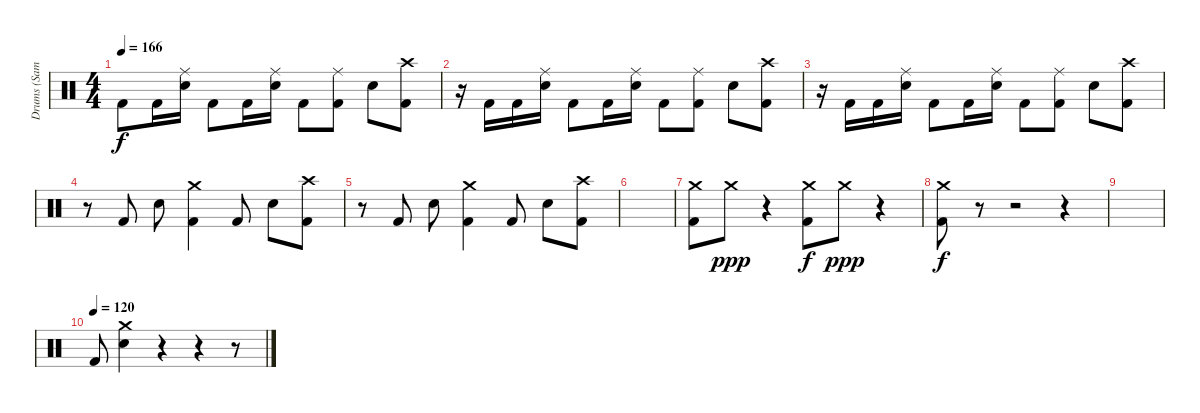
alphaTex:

\track ("Drums (Samuelson)" "Drums (Sam") {instrument percussion}
\staff
\articulation defaults
\ts (4 4)
\tempo 166
\clef neutral
\ks c "Kick (hit) 2".8{dy f} "Kick (hit) 2".16
("Ride (middle)" "Electric Snare (hit)").16 "Kick (hit) 2".8 "Kick (hit) 2".16 ("Ride (middle)" "Electric Snare (hit)").16 "Kick (hit) 2".8 ("Ride (middle)" "Kick (hit) 2").8 "Electric Snare (hit)".8 ("Crash high (hit)" "Kick (hit) 2").8 |
r.16 "Kick (hit) 2".16 "Kick (hit) 2".16 ("Ride (middle)" "Electric Snare (hit)").16 "Kick (hit) 2".8 "Kick (hit) 2".16 ("Ride (middle)" "Electric Snare (hit)").16 "Kick (hit) 2".8 ("Ride (middle)" "Kick (hit) 2").8 "Electric Snare (hit)".8 ("Crash high (hit)" "Kick (hit) 2").8 |
r.16 "Kick (hit) 2".16 "Kick (hit) 2".16 ("Ride (middle)" "Electric Snare (hit)").16 "Kick (hit) 2".8 "Kick (hit) 2".16 ("Ride (middle)" "Electric Snare (hit)").16 "Kick (hit) 2".8 ("Ride (middle)" "Kick (hit) 2").8 "Electric Snare (hit)".8 ("Crash high (hit)" "Kick (hit) 2").8 |
r.8 "Kick (hit) 2".8 "Electric Snare (hit)".8 ("Crash medium (hit)" "Kick (hit) 2").4 "Kick (hit) 2".8 "Electric Snare (hit)".8 ("Crash high (hit)" "Kick (hit) 2").8 |
r.8 "Kick (hit) 2".8 "Electric Snare (hit)".8 ("Crash medium (hit)" "Kick (hit) 2").4 "Kick (hit) 2".8 "Electric Snare (hit)".8 ("Crash high (hit)" "Kick (hit) 2").8 |
|
("Crash medium (hit)" "Kick (hit) 2").8 "Crash medium (hit)".8{dy ppp} r.4 ("Crash medium (hit)" "Kick (hit) 2").8{dy f} "Crash medium (hit)".8{dy ppp} r.4 |
("Crash medium (hit)" "Kick (hit) 2").8{dy f} r.8 r.2 r.4 |
|
\tempo (120)
"Kick (hit) 2".8 ("Crash medium (hit)" "Electric Snare (hit)").4 r.4 r.4 r.8
